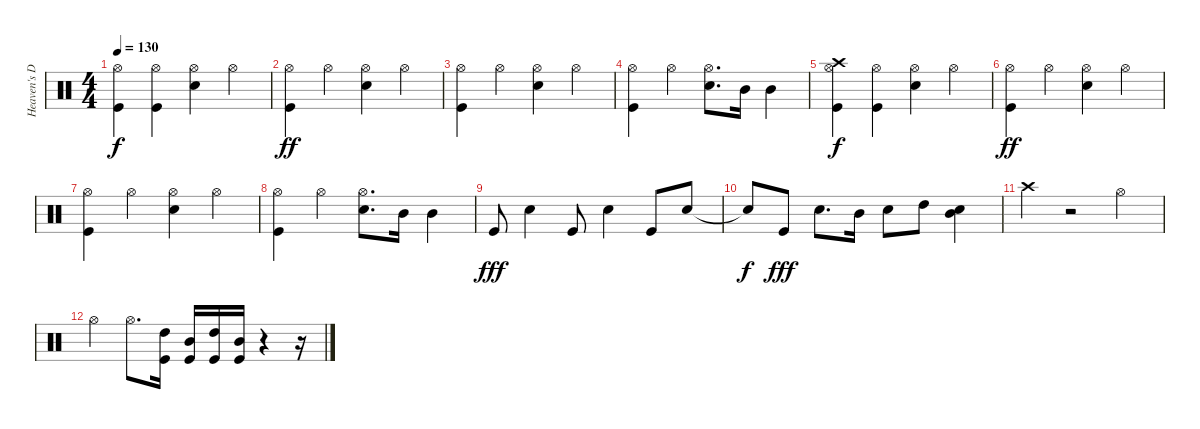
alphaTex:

\track ("Heaven's Door" "Heaven's D") {instrument percussion}
\staff {score}
\articulation defaults
\ts (4 4)
\tempo 130
\clef neutral
\ks c
("Hi-Hat (open)" "Kick (hit)").4{dy f} ("Hi-Hat (open)" "Kick (hit)").4 ("Hi-Hat (open)" "Electric Snare (hit)").4 "Hi-Hat (open)".4 |
("Hi-Hat (open)" "Kick (hit)").4{dy ff} "Hi-Hat (open)".4 ("Electric Snare (hit)" "Hi-Hat (open)").4 "Hi-Hat (open)".4 |
("Kick (hit)" "Hi-Hat (open)").4 "Hi-Hat (open)".4 ("Electric Snare (hit)" "Hi-Hat (open)").4 "Hi-Hat (open)".4 |
("Hi-Hat (open)" "Kick (hit)").4 "Hi-Hat (open)".4 ("Hi-Hat (open)" "Electric Snare (hit)").8{d} "Mid Tom (hit)".16 "Mid Tom (hit)".4 |
("Crash high (hit)" "Hi-Hat (open)" "Kick (hit)").4{dy f} ("Hi-Hat (open)" "Kick (hit)").4 ("Hi-Hat (open)" "Electric Snare (hit)").4 "Hi-Hat (open)".4 |
("Hi-Hat (open)" "Kick (hit)").4{dy ff} "Hi-Hat (open)".4 ("Electric Snare (hit)" "Hi-Hat (open)").4 "Hi-Hat (open)".4 |
("Kick (hit)" "Hi-Hat (open)").4 "Hi-Hat (open)".4 ("Electric Snare (hit)" "Hi-Hat (open)").4 "Hi-Hat (open)".4 |
("Hi-Hat (open)" "Kick (hit)").4 "Hi-Hat (open)".4 ("Hi-Hat (open)" "Electric Snare (hit)").8{d} "Mid Tom (hit)".16 "Mid Tom (hit)".4 |
"Kick (hit)".8{dy fff} "Electric Snare (hit)".4 "Kick (hit)".8 "Electric Snare (hit)".4 "Kick (hit)".8 "Electric Snare (hit)".8 |
"Snare (hit)"{t}.8{dy f} "Kick (hit)".8{dy fff} "Electric Snare (hit)".8{d} "Mid Tom (hit)".16 "Electric Snare (hit)".8 "High Tom (hit)".8 ("Electric Snare (hit)" "Mid Tom (hit)").4 |
"Crash high (hit)".4 r.2 "Hi-Hat (open)".4 |
"Hi-Hat (open)".4 "Hi-Hat (open)".8{d} ("High Tom (hit)" "Kick (hit)").16 ("Mid Tom (hit)" "Kick (hit)").16 ("High Tom (hit)" "Kick (hit)").16 ("Mid Tom (hit)" "Kick (hit)").16 r.4 r.16
